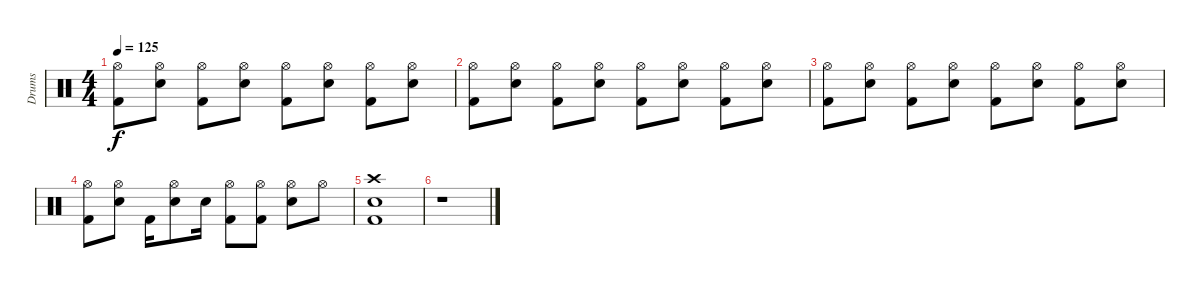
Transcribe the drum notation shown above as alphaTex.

\track ("Drums" "Drums") {instrument percussion}
\staff {score}
\articulation defaults
\ts (4 4)
\tempo 125
\clef neutral
\ks c
("Hi-Hat (open)" "Kick (hit) 2").8{dy f} ("Hi-Hat (open)" "Snare (hit) 2").8 ("Hi-Hat (open)" "Kick (hit) 2").8 ("Hi-Hat (open)" "Snare (hit) 2").8 ("Hi-Hat (open)" "Kick (hit) 2").8 ("Hi-Hat (open)" "Snare (hit) 2").8 ("Hi-Hat (open)" "Kick (hit) 2").8 ("Hi-Hat (open)" "Snare (hit) 2").8 |
("Hi-Hat (open)" "Kick (hit) 2").8 ("Hi-Hat (open)" "Snare (hit) 2").8 ("Hi-Hat (open)" "Kick (hit) 2").8 ("Hi-Hat (open)" "Snare (hit) 2").8 ("Hi-Hat (open)" "Kick (hit) 2").8 ("Hi-Hat (open)" "Snare (hit) 2").8 ("Hi-Hat (open)" "Kick (hit) 2").8 ("Hi-Hat (open)" "Snare (hit) 2").8 |
("Hi-Hat (open)" "Kick (hit) 2").8 ("Hi-Hat (open)" "Snare (hit) 2").8 ("Hi-Hat (open)" "Kick (hit) 2").8 ("Hi-Hat (open)" "Snare (hit) 2").8 ("Hi-Hat (open)" "Kick (hit) 2").8 ("Hi-Hat (open)" "Snare (hit) 2").8 ("Hi-Hat (open)" "Kick (hit) 2").8 ("Hi-Hat (open)" "Snare (hit) 2").8 |
("Hi-Hat (open)" "Kick (hit) 2").8 ("Hi-Hat (open)" "Snare (hit) 2").8 "Kick (hit) 2".16 ("Hi-Hat (open)" "Snare (hit) 2").8 "Snare (hit) 2".16 ("Hi-Hat (open)" "Kick (hit) 2").8 ("Hi-Hat (open)" "Kick (hit) 2").8 ("Hi-Hat (open)" "Snare (hit) 2").8 "Hi-Hat (open)".8 |
("Crash high (hit)" "Snare (hit) 2" "Kick (hit) 2").1 |
r.1
